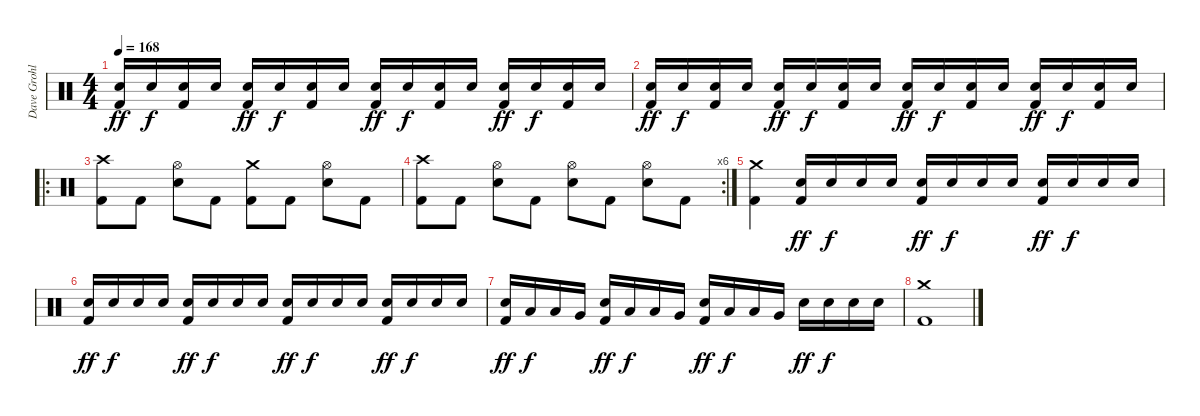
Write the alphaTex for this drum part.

\track ("Dave Grohl - Drums" "Dave Grohl") {instrument percussion}
\staff {score}
\articulation defaults
\ts (4 4)
\tempo 168
\clef neutral
\ks c
("Electric Snare (hit)" "Kick (hit) 2").16{dy ff volume 12} "Electric Snare (hit)".16{dy f} ("Electric Snare (hit)" "Kick (hit) 2").16 "Electric Snare (hit)".16 ("Electric Snare (hit)" "Kick (hit) 2").16{dy ff} "Electric Snare (hit)".16{dy f} ("Electric Snare (hit)" "Kick (hit) 2").16 "Electric Snare (hit)".16 ("Electric Snare (hit)" "Kick (hit) 2").16{dy ff} "Electric Snare (hit)".16{dy f} ("Electric Snare (hit)" "Kick (hit) 2").16 "Electric Snare (hit)".16 ("Electric Snare (hit)" "Kick (hit) 2").16{dy ff} "Electric Snare (hit)".16{dy f} ("Electric Snare (hit)" "Kick (hit) 2").16 "Electric Snare (hit)".16 |
("Electric Snare (hit)" "Kick (hit) 2").16{dy ff volume 12} "Electric Snare (hit)".16{dy f} ("Electric Snare (hit)" "Kick (hit) 2").16 "Electric Snare (hit)".16 ("Electric Snare (hit)" "Kick (hit) 2").16{dy ff} "Electric Snare (hit)".16{dy f} ("Electric Snare (hit)" "Kick (hit) 2").16 "Electric Snare (hit)".16 ("Electric Snare (hit)" "Kick (hit) 2").16{dy ff} "Electric Snare (hit)".16{dy f} ("Electric Snare (hit)" "Kick (hit) 2").16 "Electric Snare (hit)".16 ("Electric Snare (hit)" "Kick (hit) 2").16{dy ff} "Electric Snare (hit)".16{dy f} ("Electric Snare (hit)" "Kick (hit) 2").16 "Electric Snare (hit)".16 |
\ro
("Crash high (hit)" "Kick (hit) 2").8{volume 13} "Kick (hit) 2".8 ("Hi-Hat (open)" "Electric Snare (hit)").8 "Kick (hit) 2".8 ("Crash medium (hit)" "Kick (hit) 2").8 "Kick (hit) 2".8 ("Hi-Hat (open)" "Electric Snare (hit)").8 "Kick (hit) 2".8 |
\rc 6
("Crash high (hit)" "Kick (hit) 2").8{volume 13} "Kick (hit) 2".8 ("Hi-Hat (open)" "Electric Snare (hit)").8 "Kick (hit) 2".8 ("Hi-Hat (open)" "Electric Snare (hit)").8 "Kick (hit) 2".8 ("Hi-Hat (open)" "Electric Snare (hit)").8 "Kick (hit) 2".8 |
("Crash medium (hit)" "Kick (hit) 2").4{volume 12} ("Electric Snare (hit)" "Kick (hit) 2").16{dy ff volume 12} "Electric Snare (hit)".16{dy f} "Electric Snare (hit)".16 "Electric Snare (hit)".16 ("Electric Snare (hit)" "Kick (hit) 2").16{dy ff} "Electric Snare (hit)".16{dy f} "Electric Snare (hit)".16 "Electric Snare (hit)".16 ("Electric Snare (hit)" "Kick (hit) 2").16{dy ff} "Electric Snare (hit)".16{dy f} "Electric Snare (hit)".16 "Electric Snare (hit)".16 |
("Electric Snare (hit)" "Kick (hit) 2").16{dy ff volume 12} "Electric Snare (hit)".16{dy f} "Electric Snare (hit)".16 "Electric Snare (hit)".16 ("Electric Snare (hit)" "Kick (hit) 2").16{dy ff} "Electric Snare (hit)".16{dy f} "Electric Snare (hit)".16 "Electric Snare (hit)".16 ("Electric Snare (hit)" "Kick (hit) 2").16{dy ff} "Electric Snare (hit)".16{dy f} "Electric Snare (hit)".16 "Electric Snare (hit)".16 ("Electric Snare (hit)" "Kick (hit) 2").16{dy ff} "Electric Snare (hit)".16{dy f} "Electric Snare (hit)".16 "Electric Snare (hit)".16 |
("Electric Snare (hit)" "Kick (hit) 2").16{dy ff volume 12} "Low Tom (hit)".16{dy f} "Low Tom (hit)".16 "Very Low Tom (hit)".16 ("Electric Snare (hit)" "Kick (hit) 2").16{dy ff} "Low Tom (hit)".16{dy f} "Low Tom (hit)".16 "Very Low Tom (hit)".16 ("Electric Snare (hit)" "Kick (hit) 2").16{dy ff} "Low Tom (hit)".16{dy f} "Low Tom (hit)".16 "Very Low Tom (hit)".16 "Electric Snare (hit)".16{dy ff} "Electric Snare (hit)".16{dy f} "Electric Snare (hit)".16 "Electric Snare (hit)".16 |
("Crash medium (hit)" "Kick (hit) 2").1{volume 12}
